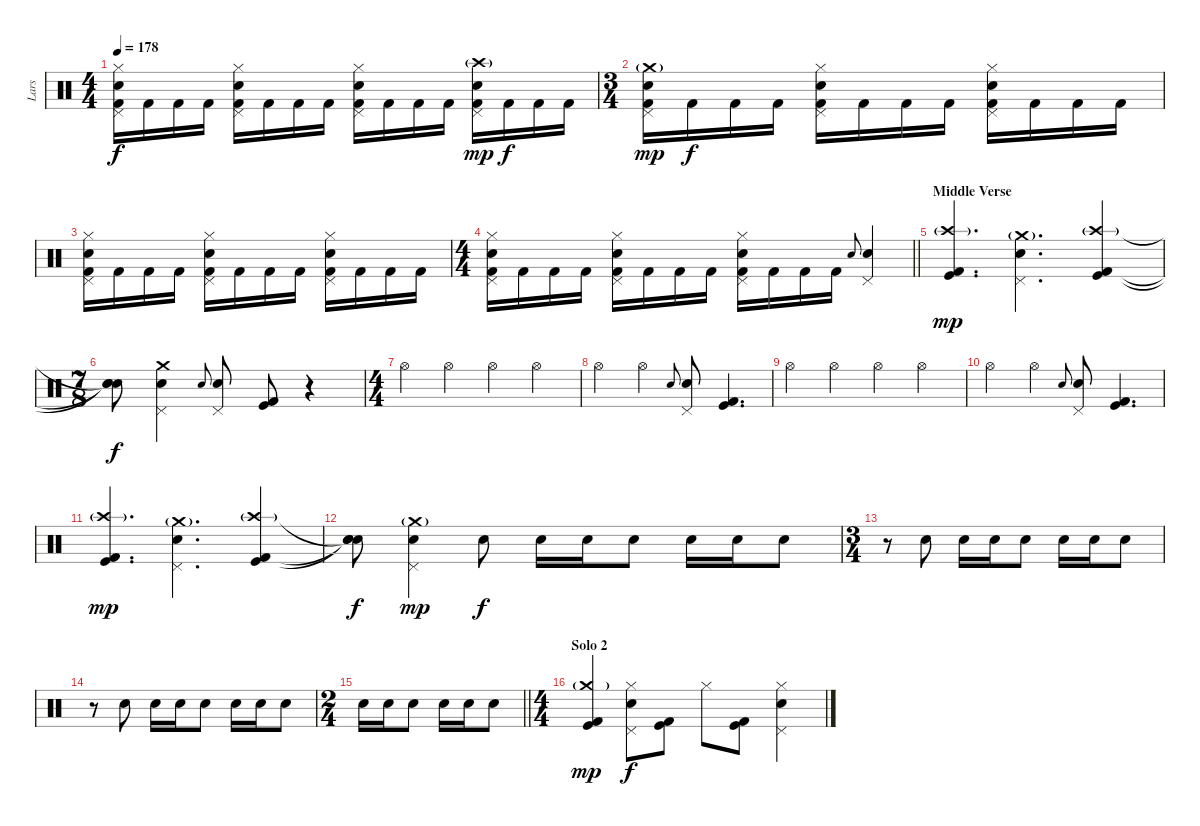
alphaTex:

\track ("Lars" "Lars") {instrument percussion}
\staff {score}
\articulation defaults
\ts (4 4)
\tempo 178
\clef neutral
\ks c
("Hi-Hat (closed)" "Pedal Hi-Hat (hit)" "Electric Snare (hit)" "Kick (hit) 2").16{dy f} "Kick (hit) 2".16 "Kick (hit) 2".16 "Kick (hit) 2".16 ("Hi-Hat (closed)" "Pedal Hi-Hat (hit)" "Electric Snare (hit)" "Kick (hit) 2").16 "Kick (hit) 2".16 "Kick (hit) 2".16 "Kick (hit) 2".16 ("Hi-Hat (closed)" "Pedal Hi-Hat (hit)" "Electric Snare (hit)" "Kick (hit) 2").16 "Kick (hit) 2".16 "Kick (hit) 2".16 "Kick (hit) 2".16 ("Crash high (hit)"{g} "Pedal Hi-Hat (hit)" "Electric Snare (hit)" "Kick (hit) 2").16{dy mp} "Kick (hit) 2".16{dy f} "Kick (hit) 2".16 "Kick (hit) 2".16 |
\ts (3 4)
("Crash medium (hit)"{g} "Pedal Hi-Hat (hit)" "Electric Snare (hit)" "Kick (hit) 2").16{dy mp} "Kick (hit) 2".16{dy f} "Kick (hit) 2".16 "Kick (hit) 2".16 ("Hi-Hat (closed)" "Pedal Hi-Hat (hit)" "Electric Snare (hit)" "Kick (hit) 2").16 "Kick (hit) 2".16 "Kick (hit) 2".16 "Kick (hit) 2".16 ("Hi-Hat (closed)" "Pedal Hi-Hat (hit)" "Electric Snare (hit)" "Kick (hit) 2").16 "Kick (hit) 2".16 "Kick (hit) 2".16 "Kick (hit) 2".16 |
("Hi-Hat (closed)" "Pedal Hi-Hat (hit)" "Electric Snare (hit)" "Kick (hit) 2").16 "Kick (hit) 2".16 "Kick (hit) 2".16 "Kick (hit) 2".16 ("Hi-Hat (closed)" "Pedal Hi-Hat (hit)" "Electric Snare (hit)" "Kick (hit) 2").16 "Kick (hit) 2".16 "Kick (hit) 2".16 "Kick (hit) 2".16 ("Hi-Hat (closed)" "Pedal Hi-Hat (hit)" "Electric Snare (hit)" "Kick (hit) 2").16 "Kick (hit) 2".16 "Kick (hit) 2".16 "Kick (hit) 2".16 |
\ts (4 4)
\barLineRight lightlight
("Hi-Hat (closed)" "Pedal Hi-Hat (hit)" "Electric Snare (hit)" "Kick (hit) 2").16 "Kick (hit) 2".16 "Kick (hit) 2".16 "Kick (hit) 2".16 ("Hi-Hat (closed)" "Pedal Hi-Hat (hit)" "Electric Snare (hit)" "Kick (hit) 2").16 "Kick (hit) 2".16 "Kick (hit) 2".16 "Kick (hit) 2".16 ("Hi-Hat (closed)" "Pedal Hi-Hat (hit)" "Electric Snare (hit)" "Kick (hit) 2").16 "Kick (hit) 2".16 "Kick (hit) 2".16 "Kick (hit) 2".16 "Electric Snare (hit)".8{gr onbeat} ("Pedal Hi-Hat (hit)" "Electric Snare (hit)").4 |
\section ("" "Middle Verse")
("Crash high (hit)"{g} "Kick (hit)" "Kick (hit) 2").4{d dy mp} ("Crash medium (hit)"{g} "Pedal Hi-Hat (hit)" "Electric Snare (hit)").4{d} ("Crash high (hit)"{g} "Kick (hit)" "Kick (hit) 2").4 |
\ts (7 8)
("Snare (hit)"{t} "Snare (hit)"{t} "Snare (hit)"{t}).8{dy f} ("Crash medium (hit)" "Pedal Hi-Hat (hit)" "Electric Snare (hit)").4 "Electric Snare (hit)".8{gr onbeat} ("Pedal Hi-Hat (hit)" "Electric Snare (hit)").8 ("Kick (hit)" "Kick (hit) 2").8 r.4 |
\ts (4 4)
"Hi-Hat (open)".4 "Hi-Hat (open)".4 "Hi-Hat (open)".4 "Hi-Hat (open)".4 |
"Hi-Hat (open)".4 "Hi-Hat (open)".4 "Electric Snare (hit)".8{gr onbeat} ("Pedal Hi-Hat (hit)" "Electric Snare (hit)").8 ("Kick (hit)" "Kick (hit) 2").4{d} |
"Hi-Hat (open)".4 "Hi-Hat (open)".4 "Hi-Hat (open)".4 "Hi-Hat (open)".4 |
"Hi-Hat (open)".4 "Hi-Hat (open)".4 "Electric Snare (hit)".8{gr onbeat} ("Pedal Hi-Hat (hit)" "Electric Snare (hit)").8 ("Kick (hit)" "Kick (hit) 2").4{d} |
("Crash high (hit)"{g} "Kick (hit)" "Kick (hit) 2").4{d dy mp} ("Crash medium (hit)"{g} "Pedal Hi-Hat (hit)" "Electric Snare (hit)").4{d} ("Crash high (hit)"{g} "Kick (hit)" "Kick (hit) 2").4 |
("Snare (hit)"{t} "Snare (hit)"{t} "Snare (hit)"{t}).8{dy f} ("Crash medium (hit)"{g} "Pedal Hi-Hat (hit)" "Electric Snare (hit)").4{dy mp} "Electric Snare (hit)".8{dy f} "Electric Snare (hit)".16 "Electric Snare (hit)".16 "Electric Snare (hit)".8 "Electric Snare (hit)".16 "Electric Snare (hit)".16 "Electric Snare (hit)".8 |
\ts (3 4)
r.8 "Electric Snare (hit)".8 "Electric Snare (hit)".16 "Electric Snare (hit)".16 "Electric Snare (hit)".8 "Electric Snare (hit)".16 "Electric Snare (hit)".16 "Electric Snare (hit)".8 |
r.8 "Electric Snare (hit)".8 "Electric Snare (hit)".16 "Electric Snare (hit)".16 "Electric Snare (hit)".8 "Electric Snare (hit)".16 "Electric Snare (hit)".16 "Electric Snare (hit)".8 |
\ts (2 4)
\barLineRight lightlight "Electric Snare (hit)".16 "Electric Snare (hit)".16 "Electric Snare (hit)".8 "Electric Snare (hit)".16 "Electric Snare (hit)".16 "Electric Snare (hit)".8
|
\ts (4 4)
\section ("" "Solo 2")
("Crash medium (hit)"{g} "Kick (hit)" "Kick (hit) 2").4{dy mp} ("Hi-Hat (closed)" "Pedal Hi-Hat (hit)" "Electric Snare (hit)").8{dy f} ("Kick (hit)" "Kick (hit) 2").8 "Hi-Hat (closed)".8 ("Kick (hit)" "Kick (hit) 2").8 ("Hi-Hat (closed)" "Pedal Hi-Hat (hit)" "Electric Snare (hit)").4
